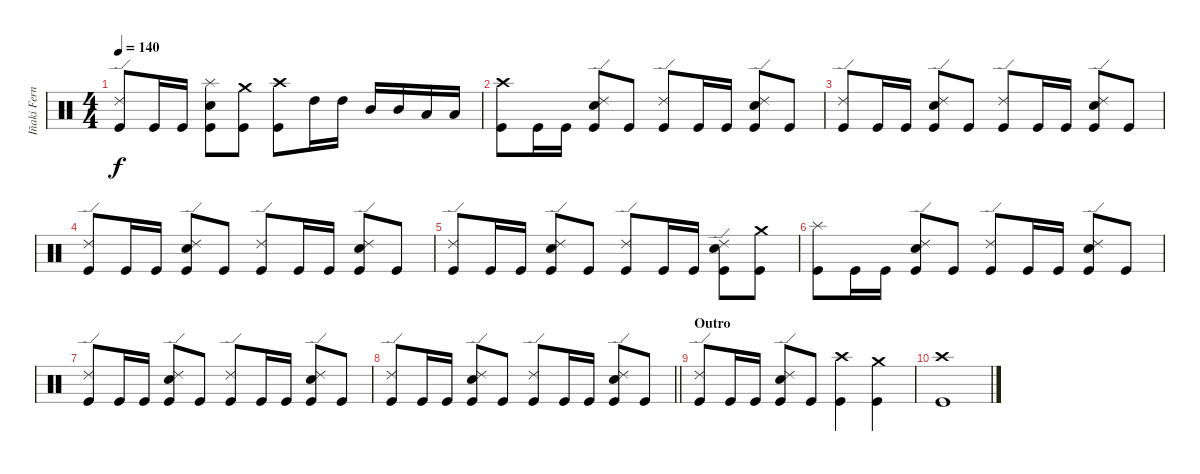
\track ("Iñaki Fernández" "Iñaki Fern") {instrument percussion}
\staff {score}
\articulation defaults
\ts (4 4)
\tempo 140
\clef neutral
\ks c
("Ride (edge) 2" "Kick (hit)").8{dy f} "Kick (hit)".16 "Kick (hit)".16 ("Snare (hit) 2" "Splash (hit)" "Kick (hit)").8 ("Crash medium (hit)" "Kick (hit)").8 ("Crash high (hit)" "Kick (hit)").8 "High Tom (hit)".16 "High Tom (hit)".16 "Mid Tom (hit)".16 "Mid Tom (hit)".16 "Low Tom (hit)".16 "Low Tom (hit)".16 |
("Crash high (hit)" "Kick (hit)").8 "Kick (hit)".16 "Kick (hit)".16 ("Ride (edge) 2" "Snare (hit) 2" "Kick (hit)").8 "Kick (hit)".8 ("Ride (edge) 2" "Kick (hit)").8 "Kick (hit)".16 "Kick (hit)".16 ("Ride (edge) 2" "Snare (hit) 2" "Kick (hit)").8 "Kick (hit)".8 |
("Ride (edge) 2" "Kick (hit)").8 "Kick (hit)".16 "Kick (hit)".16 ("Ride (edge) 2" "Snare (hit) 2" "Kick (hit)").8 "Kick (hit)".8 ("Ride (edge) 2" "Kick (hit)").8 "Kick (hit)".16 "Kick (hit)".16 ("Ride (edge) 2" "Snare (hit) 2" "Kick (hit)").8 "Kick (hit)".8 |
("Ride (edge) 2" "Kick (hit)").8 "Kick (hit)".16 "Kick (hit)".16 ("Ride (edge) 2" "Snare (hit) 2" "Kick (hit)").8 "Kick (hit)".8 ("Ride (edge) 2" "Kick (hit)").8 "Kick (hit)".16 "Kick (hit)".16 ("Ride (edge) 2" "Snare (hit) 2" "Kick (hit)").8 "Kick (hit)".8 |
("Ride (edge) 2" "Kick (hit)").8 "Kick (hit)".16 "Kick (hit)".16 ("Ride (edge) 2" "Snare (hit) 2" "Kick (hit)").8 "Kick (hit)".8 ("Ride (edge) 2" "Kick (hit)").8 "Kick (hit)".16 "Kick (hit)".16 ("Ride (edge) 2" "Snare (hit) 2" "Kick (hit)").8 ("Crash medium (hit)" "Kick (hit)").8 |
("Splash (hit)" "Kick (hit)").8 "Kick (hit)".16 "Kick (hit)".16 ("Ride (edge) 2" "Snare (hit) 2" "Kick (hit)").8 "Kick (hit)".8 ("Ride (edge) 2" "Kick (hit)").8 "Kick (hit)".16 "Kick (hit)".16 ("Ride (edge) 2" "Snare (hit) 2" "Kick (hit)").8 "Kick (hit)".8 |
("Ride (edge) 2" "Kick (hit)").8 "Kick (hit)".16 "Kick (hit)".16 ("Ride (edge) 2" "Snare (hit) 2" "Kick (hit)").8 "Kick (hit)".8 ("Ride (edge) 2" "Kick (hit)").8 "Kick (hit)".16 "Kick (hit)".16 ("Ride (edge) 2" "Snare (hit) 2" "Kick (hit)").8 "Kick (hit)".8 |
\barLineRight lightlight
("Ride (edge) 2" "Kick (hit)").8 "Kick (hit)".16 "Kick (hit)".16 ("Ride (edge) 2" "Snare (hit) 2" "Kick (hit)").8 "Kick (hit)".8 ("Ride (edge) 2" "Kick (hit)").8 "Kick (hit)".16 "Kick (hit)".16 ("Ride (edge) 2" "Snare (hit) 2" "Kick (hit)").8 "Kick (hit)".8 |
\section ("" "Outro")
("Ride (edge) 2" "Kick (hit)").8 "Kick (hit)".16 "Kick (hit)".16 ("Ride (edge) 2" "Snare (hit) 2" "Kick (hit)").8 "Kick (hit)".8 ("Crash high (hit)" "Kick (hit)").4 ("Crash medium (hit)" "Kick (hit)").4 |
("Crash high (hit)" "Kick (hit)").1
